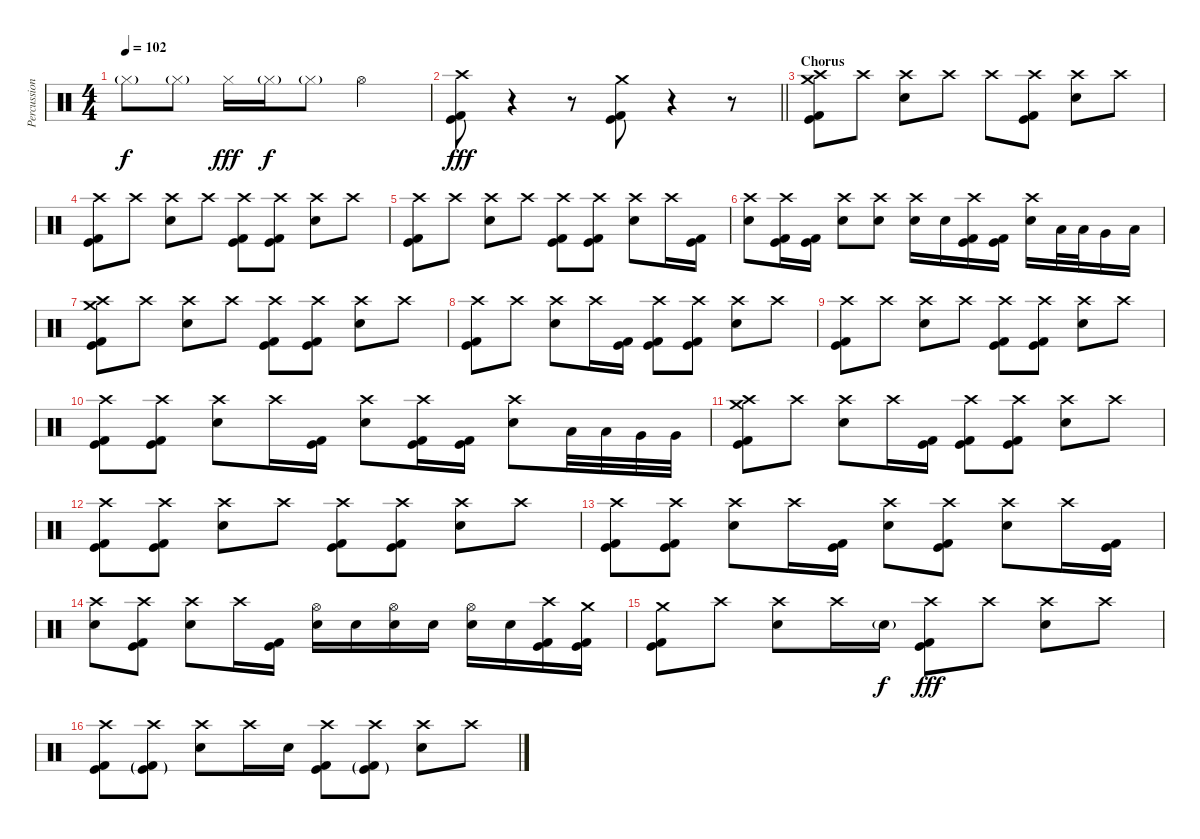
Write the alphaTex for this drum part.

\track ("Percussion" "Percussion") {instrument percussion}
\staff {score}
\articulation defaults
\ts (4 4)
\tempo 102
\clef neutral
\ks c "Hi-Hat (closed)"{g}.8{dy f} "Hi-Hat (closed)"{g}.8 "Hi-Hat (closed)".16{dy fff} "Hi-Hat (closed)"{g}.16{dy f} "Hi-Hat (closed)"{g}.8 "Hi-Hat (open)".2
|
\barLineRight lightlight
("Crash high (hit)" "Kick (hit)" "Kick (hit) 2").8{dy fff} r.4{volume 0} r.8 ("Crash medium (hit)" "Kick (hit)" "Kick (hit) 2").8{volume 16} r.4{volume 0} r.8 |
\section ("" "Chorus")
("Crash medium (hit)" "Crash high (hit)" "Kick (hit)" "Kick (hit) 2").8{volume 16} "Crash high (hit)".8 ("Crash high (hit)" "Electric Snare (hit)").8 "Crash high (hit)".8 "Crash high (hit)".8 ("Crash high (hit)" "Kick (hit)" "Kick (hit) 2").8 ("Crash high (hit)" "Electric Snare (hit)").8 "Crash high (hit)".8 |
("Crash high (hit)" "Kick (hit)" "Kick (hit) 2").8 "Crash high (hit)".8 ("Crash high (hit)" "Electric Snare (hit)").8 "Crash high (hit)".8 ("Crash high (hit)" "Kick (hit)" "Kick (hit) 2").8 ("Crash high (hit)" "Kick (hit)" "Kick (hit) 2").8 ("Crash high (hit)" "Electric Snare (hit)").8 "Crash high (hit)".8 |
("Crash high (hit)" "Kick (hit)" "Kick (hit) 2").8 "Crash high (hit)".8 ("Crash high (hit)" "Electric Snare (hit)").8 "Crash high (hit)".8 ("Crash high (hit)" "Kick (hit)" "Kick (hit) 2").8 ("Crash high (hit)" "Kick (hit)" "Kick (hit) 2").8 ("Crash high (hit)" "Electric Snare (hit)").8 "Crash high (hit)".16 ("Kick (hit)" "Kick (hit) 2").16 |
("Crash high (hit)" "Electric Snare (hit)").8 ("Crash high (hit)" "Kick (hit)" "Kick (hit) 2").16 ("Kick (hit)" "Kick (hit) 2").16 ("Crash high (hit)" "Electric Snare (hit)").8 ("Crash high (hit)" "Electric Snare (hit)").8 ("Crash high (hit)" "Electric Snare (hit)").16 "Electric Snare (hit)".16 ("Crash high (hit)" "Kick (hit)" "Kick (hit) 2").16 ("Kick (hit)" "Kick (hit) 2").16 ("Crash high (hit)" "Electric Snare (hit)").16 "Low Tom (hit)".32 "Low Tom (hit)".32 "Very Low Tom (hit)".16 "Low Floor Tom (hit)".16 |
("Crash medium (hit)" "Crash high (hit)" "Kick (hit)" "Kick (hit) 2").8 "Crash high (hit)".8 ("Crash high (hit)" "Electric Snare (hit)").8 "Crash high (hit)".8 ("Crash high (hit)" "Kick (hit)" "Kick (hit) 2").8 ("Crash high (hit)" "Kick (hit)" "Kick (hit) 2").8 ("Crash high (hit)" "Electric Snare (hit)").8 "Crash high (hit)".8 |
("Crash high (hit)" "Kick (hit)" "Kick (hit) 2").8 "Crash high (hit)".8 ("Crash high (hit)" "Electric Snare (hit)").8 "Crash high (hit)".16 ("Kick (hit)" "Kick (hit) 2").16 ("Crash high (hit)" "Kick (hit)" "Kick (hit) 2").8 ("Crash high (hit)" "Kick (hit)" "Kick (hit) 2").8 ("Crash high (hit)" "Electric Snare (hit)").8 "Crash high (hit)".8 |
("Crash high (hit)" "Kick (hit)" "Kick (hit) 2").8 "Crash high (hit)".8 ("Crash high (hit)" "Electric Snare (hit)").8 "Crash high (hit)".8 ("Crash high (hit)" "Kick (hit)" "Kick (hit) 2").8 ("Crash high (hit)" "Kick (hit)" "Kick (hit) 2").8 ("Crash high (hit)" "Electric Snare (hit)").8 "Crash high (hit)".8 |
("Crash high (hit)" "Kick (hit)" "Kick (hit) 2").8 ("Crash high (hit)" "Kick (hit)" "Kick (hit) 2").8 ("Crash high (hit)" "Electric Snare (hit)").8 "Crash high (hit)".16 ("Kick (hit)" "Kick (hit) 2").16 ("Crash high (hit)" "Electric Snare (hit)").8 ("Crash high (hit)" "Kick (hit)" "Kick (hit) 2").16 ("Kick (hit)" "Kick (hit) 2").16 ("Crash high (hit)" "Electric Snare (hit)").8 "Low Tom (hit)".32 "Low Tom (hit)".32 "Very Low Tom (hit)".32 "Very Low Tom (hit)".32 |
("Crash medium (hit)" "Crash high (hit)" "Kick (hit)" "Kick (hit) 2").8 "Crash high (hit)".8 ("Crash high (hit)" "Electric Snare (hit)").8 "Crash high (hit)".16 ("Kick (hit)" "Kick (hit) 2").16 ("Crash high (hit)" "Kick (hit)" "Kick (hit) 2").8 ("Crash high (hit)" "Kick (hit)" "Kick (hit) 2").8 ("Crash high (hit)" "Electric Snare (hit)").8 "Crash high (hit)".8 |
("Crash high (hit)" "Kick (hit)" "Kick (hit) 2").8 ("Crash high (hit)" "Kick (hit)" "Kick (hit) 2").8 ("Crash high (hit)" "Electric Snare (hit)").8 "Crash high (hit)".8 ("Crash high (hit)" "Kick (hit)" "Kick (hit) 2").8 ("Crash high (hit)" "Kick (hit)" "Kick (hit) 2").8 ("Crash high (hit)" "Electric Snare (hit)").8 "Crash high (hit)".8 |
("Crash high (hit)" "Kick (hit)" "Kick (hit) 2").8 ("Crash high (hit)" "Kick (hit)" "Kick (hit) 2").8 ("Crash high (hit)" "Electric Snare (hit)").8 "Crash high (hit)".16 ("Kick (hit)" "Kick (hit) 2").16 ("Crash high (hit)" "Electric Snare (hit)").8 ("Crash high (hit)" "Kick (hit)" "Kick (hit) 2").8 ("Crash high (hit)" "Electric Snare (hit)").8 "Crash high (hit)".16 ("Kick (hit)" "Kick (hit) 2").16 |
("Crash high (hit)" "Electric Snare (hit)").8 ("Crash high (hit)" "Kick (hit)" "Kick (hit) 2").8 ("Crash high (hit)" "Electric Snare (hit)").8 "Crash high (hit)".16 ("Kick (hit)" "Kick (hit) 2").16 ("Hi-Hat (open)" "Electric Snare (hit)").16 "Electric Snare (hit)".16 ("Hi-Hat (open)" "Electric Snare (hit)").16 "Electric Snare (hit)".16 ("Hi-Hat (open)" "Electric Snare (hit)").16 "Electric Snare (hit)".16 ("Crash high (hit)" "Kick (hit)" "Kick (hit) 2").16 ("Crash medium (hit)" "Kick (hit)" "Kick (hit) 2").16 |
("Crash medium (hit)" "Kick (hit)" "Kick (hit) 2").8 "Crash high (hit)".8 ("Crash high (hit)" "Electric Snare (hit)").8 "Crash high (hit)".16 "Electric Snare (hit)"{g}.16{dy f} ("Crash high (hit)" "Kick (hit)" "Kick (hit) 2").8{dy fff} "Crash high (hit)".8 ("Crash high (hit)" "Electric Snare (hit)").8 "Crash high (hit)".8 |
("Crash high (hit)" "Kick (hit)" "Kick (hit) 2").8 ("Crash high (hit)" "Kick (hit)"{g} "Kick (hit) 2"{g}).8 ("Crash high (hit)" "Electric Snare (hit)").8 "Crash high (hit)".16 "Electric Snare (hit)".16 ("Crash high (hit)" "Kick (hit)" "Kick (hit) 2").8 ("Crash high (hit)" "Kick (hit)"{g} "Kick (hit) 2"{g}).8 ("Crash high (hit)" "Electric Snare (hit)").8 "Crash high (hit)".8
